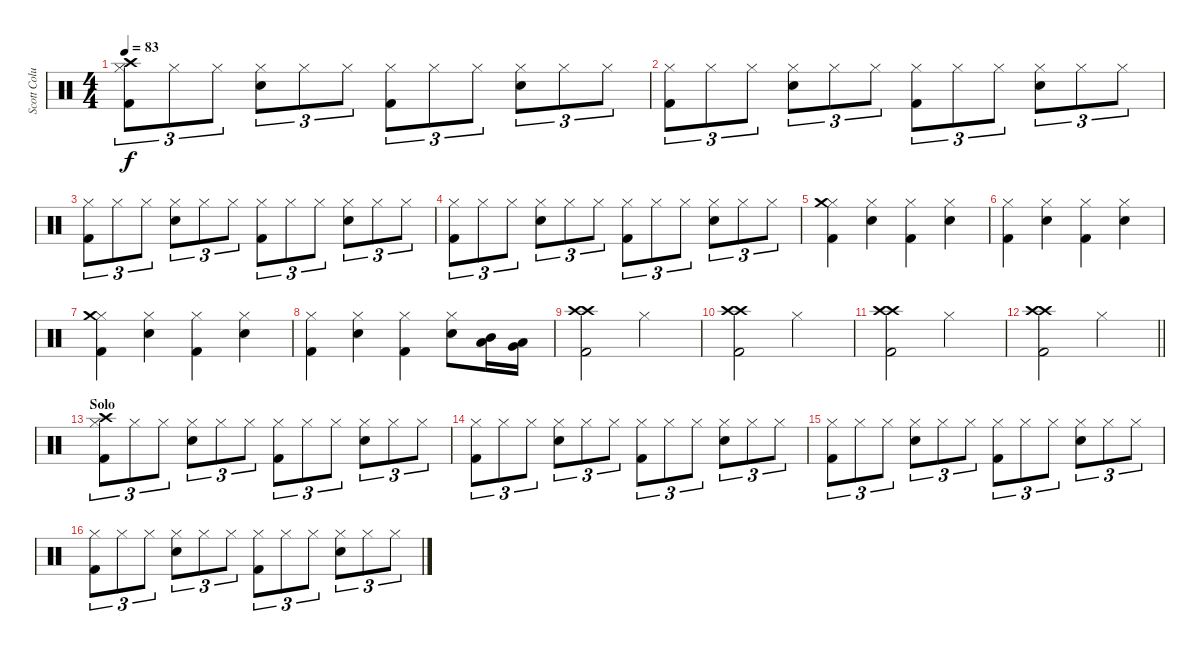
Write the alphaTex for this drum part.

\track ("Scott Columbus" "Scott Colu") {instrument percussion}
\staff {score}
\articulation defaults
\ts (4 4)
\tempo 83
\clef neutral
\ks c
("Kick (hit) 2" "Hi-Hat (closed)" "Crash high (hit)").8{tu (3 2) dy f} "Hi-Hat (closed)".8{tu (3 2)} "Hi-Hat (closed)".8{tu (3 2)} ("Electric Snare (hit)" "Hi-Hat (closed)").8{tu (3 2)} "Hi-Hat (closed)".8{tu (3 2)} "Hi-Hat (closed)".8{tu (3 2)} ("Kick (hit) 2" "Hi-Hat (closed)").8{tu (3 2)} "Hi-Hat (closed)".8{tu (3 2)} "Hi-Hat (closed)".8{tu (3 2)} ("Electric Snare (hit)" "Hi-Hat (closed)").8{tu (3 2)} "Hi-Hat (closed)".8{tu (3 2)} "Hi-Hat (closed)".8{tu (3 2)} |
("Kick (hit) 2" "Hi-Hat (closed)").8{tu (3 2)} "Hi-Hat (closed)".8{tu (3 2)} "Hi-Hat (closed)".8{tu (3 2)} ("Electric Snare (hit)" "Hi-Hat (closed)").8{tu (3 2)} "Hi-Hat (closed)".8{tu (3 2)} "Hi-Hat (closed)".8{tu (3 2)} ("Kick (hit) 2" "Hi-Hat (closed)").8{tu (3 2)} "Hi-Hat (closed)".8{tu (3 2)} "Hi-Hat (closed)".8{tu (3 2)} ("Electric Snare (hit)" "Hi-Hat (closed)").8{tu (3 2)} "Hi-Hat (closed)".8{tu (3 2)} "Hi-Hat (closed)".8{tu (3 2)} |
("Kick (hit) 2" "Hi-Hat (closed)").8{tu (3 2)} "Hi-Hat (closed)".8{tu (3 2)} "Hi-Hat (closed)".8{tu (3 2)} ("Electric Snare (hit)" "Hi-Hat (closed)").8{tu (3 2)} "Hi-Hat (closed)".8{tu (3 2)} "Hi-Hat (closed)".8{tu (3 2)} ("Kick (hit) 2" "Hi-Hat (closed)").8{tu (3 2)} "Hi-Hat (closed)".8{tu (3 2)} "Hi-Hat (closed)".8{tu (3 2)} ("Electric Snare (hit)" "Hi-Hat (closed)").8{tu (3 2)} "Hi-Hat (closed)".8{tu (3 2)} "Hi-Hat (closed)".8{tu (3 2)} |
("Kick (hit) 2" "Hi-Hat (closed)").8{tu (3 2)} "Hi-Hat (closed)".8{tu (3 2)} "Hi-Hat (closed)".8{tu (3 2)} ("Electric Snare (hit)" "Hi-Hat (closed)").8{tu (3 2)} "Hi-Hat (closed)".8{tu (3 2)} "Hi-Hat (closed)".8{tu (3 2)} ("Kick (hit) 2" "Hi-Hat (closed)").8{tu (3 2)} "Hi-Hat (closed)".8{tu (3 2)} "Hi-Hat (closed)".8{tu (3 2)} ("Electric Snare (hit)" "Hi-Hat (closed)").8{tu (3 2)} "Hi-Hat (closed)".8{tu (3 2)} "Hi-Hat (closed)".8{tu (3 2)} |
("Kick (hit) 2" "Hi-Hat (closed)" "Crash medium (hit)").4 ("Electric Snare (hit)" "Hi-Hat (closed)").4 ("Kick (hit) 2" "Hi-Hat (closed)").4 ("Electric Snare (hit)" "Hi-Hat (closed)").4 |
("Kick (hit) 2" "Hi-Hat (closed)").4 ("Electric Snare (hit)" "Hi-Hat (closed)").4 ("Kick (hit) 2" "Hi-Hat (closed)").4 ("Electric Snare (hit)" "Hi-Hat (closed)").4 |
("Kick (hit) 2" "Hi-Hat (closed)" "Crash medium (hit)").4 ("Electric Snare (hit)" "Hi-Hat (closed)").4 ("Kick (hit) 2" "Hi-Hat (closed)").4 ("Electric Snare (hit)" "Hi-Hat (closed)").4 |
("Kick (hit) 2" "Hi-Hat (closed)").4 ("Electric Snare (hit)" "Hi-Hat (closed)").4 ("Kick (hit) 2" "Hi-Hat (closed)").4 ("Electric Snare (hit)" "Hi-Hat (closed)").8 ("Mid Tom (hit)" "Low Tom (hit)").16 ("Low Tom (hit)" "Very Low Tom (hit)").16 |
("Kick (hit) 2" "Crash high (hit)" "Crash high (hit)").2 "Hi-Hat (closed)".2 |
("Kick (hit) 2" "Crash high (hit)" "Crash high (hit)").2 "Hi-Hat (closed)".2 |
("Kick (hit) 2" "Crash high (hit)" "Crash high (hit)").2 "Hi-Hat (closed)".2 |
\barLineRight lightlight
("Kick (hit) 2" "Crash high (hit)" "Crash high (hit)").2 "Hi-Hat (closed)".2 |
\section ("" "Solo")
("Kick (hit) 2" "Hi-Hat (closed)" "Crash high (hit)").8{tu (3 2)} "Hi-Hat (closed)".8{tu (3 2)} "Hi-Hat (closed)".8{tu (3 2)} ("Electric Snare (hit)" "Hi-Hat (closed)").8{tu (3 2)} "Hi-Hat (closed)".8{tu (3 2)} "Hi-Hat (closed)".8{tu (3 2)} ("Kick (hit) 2" "Hi-Hat (closed)").8{tu (3 2)} "Hi-Hat (closed)".8{tu (3 2)} "Hi-Hat (closed)".8{tu (3 2)} ("Electric Snare (hit)" "Hi-Hat (closed)").8{tu (3 2)} "Hi-Hat (closed)".8{tu (3 2)} "Hi-Hat (closed)".8{tu (3 2)} |
("Kick (hit) 2" "Hi-Hat (closed)").8{tu (3 2)} "Hi-Hat (closed)".8{tu (3 2)} "Hi-Hat (closed)".8{tu (3 2)} ("Electric Snare (hit)" "Hi-Hat (closed)").8{tu (3 2)} "Hi-Hat (closed)".8{tu (3 2)} "Hi-Hat (closed)".8{tu (3 2)} ("Kick (hit) 2" "Hi-Hat (closed)").8{tu (3 2)} "Hi-Hat (closed)".8{tu (3 2)} "Hi-Hat (closed)".8{tu (3 2)} ("Electric Snare (hit)" "Hi-Hat (closed)").8{tu (3 2)} "Hi-Hat (closed)".8{tu (3 2)} "Hi-Hat (closed)".8{tu (3 2)} |
("Kick (hit) 2" "Hi-Hat (closed)").8{tu (3 2)} "Hi-Hat (closed)".8{tu (3 2)} "Hi-Hat (closed)".8{tu (3 2)} ("Electric Snare (hit)" "Hi-Hat (closed)").8{tu (3 2)} "Hi-Hat (closed)".8{tu (3 2)} "Hi-Hat (closed)".8{tu (3 2)} ("Kick (hit) 2" "Hi-Hat (closed)").8{tu (3 2)} "Hi-Hat (closed)".8{tu (3 2)} "Hi-Hat (closed)".8{tu (3 2)} ("Electric Snare (hit)" "Hi-Hat (closed)").8{tu (3 2)} "Hi-Hat (closed)".8{tu (3 2)} "Hi-Hat (closed)".8{tu (3 2)} |
("Kick (hit) 2" "Hi-Hat (closed)").8{tu (3 2)} "Hi-Hat (closed)".8{tu (3 2)} "Hi-Hat (closed)".8{tu (3 2)} ("Electric Snare (hit)" "Hi-Hat (closed)").8{tu (3 2)} "Hi-Hat (closed)".8{tu (3 2)} "Hi-Hat (closed)".8{tu (3 2)} ("Kick (hit) 2" "Hi-Hat (closed)").8{tu (3 2)} "Hi-Hat (closed)".8{tu (3 2)} "Hi-Hat (closed)".8{tu (3 2)} ("Electric Snare (hit)" "Hi-Hat (closed)").8{tu (3 2)} "Hi-Hat (closed)".8{tu (3 2)} "Hi-Hat (closed)".8{tu (3 2)}
